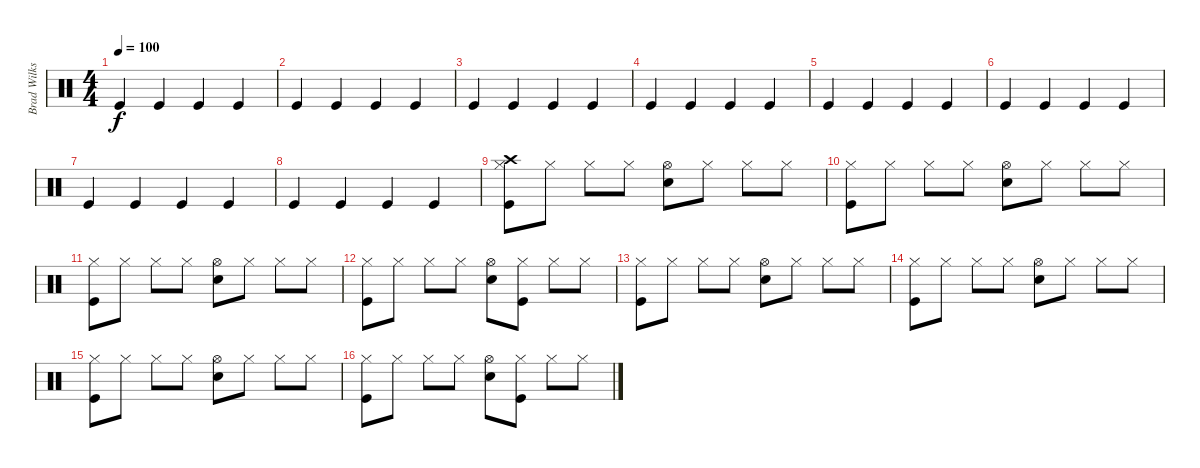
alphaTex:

\track ("Brad Wilks (Percussion)" "Brad Wilks") {instrument percussion}
\staff {score}
\articulation defaults
\ts (4 4)
\tempo 100
\clef neutral
\ks c "Kick (hit)".4{dy f} "Kick (hit)".4 "Kick (hit)".4 "Kick (hit)".4
|
"Kick (hit)".4 "Kick (hit)".4 "Kick (hit)".4 "Kick (hit)".4 |
"Kick (hit)".4 "Kick (hit)".4 "Kick (hit)".4 "Kick (hit)".4 |
"Kick (hit)".4 "Kick (hit)".4 "Kick (hit)".4 "Kick (hit)".4 |
"Kick (hit)".4 "Kick (hit)".4 "Kick (hit)".4 "Kick (hit)".4 |
"Kick (hit)".4 "Kick (hit)".4 "Kick (hit)".4 "Kick (hit)".4 |
"Kick (hit)".4 "Kick (hit)".4 "Kick (hit)".4 "Kick (hit)".4 |
"Kick (hit)".4 "Kick (hit)".4 "Kick (hit)".4 "Kick (hit)".4 |
("Crash high (hit)" "Hi-Hat (closed)" "Kick (hit)").8 "Hi-Hat (closed)".8 "Hi-Hat (closed)".8 "Hi-Hat (closed)".8 ("Hi-Hat (open)" "Electric Snare (hit)").8 "Hi-Hat (closed)".8 "Hi-Hat (closed)".8 "Hi-Hat (closed)".8 |
("Hi-Hat (closed)" "Kick (hit)").8 "Hi-Hat (closed)".8 "Hi-Hat (closed)".8 "Hi-Hat (closed)".8 ("Hi-Hat (open)" "Electric Snare (hit)").8 "Hi-Hat (closed)".8 "Hi-Hat (closed)".8 "Hi-Hat (closed)".8 |
("Hi-Hat (closed)" "Kick (hit)").8 "Hi-Hat (closed)".8 "Hi-Hat (closed)".8 "Hi-Hat (closed)".8 ("Hi-Hat (open)" "Electric Snare (hit)").8 "Hi-Hat (closed)".8 "Hi-Hat (closed)".8 "Hi-Hat (closed)".8 |
("Hi-Hat (closed)" "Kick (hit)").8 "Hi-Hat (closed)".8 "Hi-Hat (closed)".8 "Hi-Hat (closed)".8 ("Hi-Hat (open)" "Electric Snare (hit)").8 ("Hi-Hat (closed)" "Kick (hit)").8 "Hi-Hat (closed)".8 "Hi-Hat (closed)".8 |
("Hi-Hat (closed)" "Kick (hit)").8 "Hi-Hat (closed)".8 "Hi-Hat (closed)".8 "Hi-Hat (closed)".8 ("Hi-Hat (open)" "Electric Snare (hit)").8 "Hi-Hat (closed)".8 "Hi-Hat (closed)".8 "Hi-Hat (closed)".8 |
("Hi-Hat (closed)" "Kick (hit)").8 "Hi-Hat (closed)".8 "Hi-Hat (closed)".8 "Hi-Hat (closed)".8 ("Hi-Hat (open)" "Electric Snare (hit)").8 "Hi-Hat (closed)".8 "Hi-Hat (closed)".8 "Hi-Hat (closed)".8 |
("Hi-Hat (closed)" "Kick (hit)").8 "Hi-Hat (closed)".8 "Hi-Hat (closed)".8 "Hi-Hat (closed)".8 ("Hi-Hat (open)" "Electric Snare (hit)").8 "Hi-Hat (closed)".8 "Hi-Hat (closed)".8 "Hi-Hat (closed)".8 |
("Hi-Hat (closed)" "Kick (hit)").8 "Hi-Hat (closed)".8 "Hi-Hat (closed)".8 "Hi-Hat (closed)".8 ("Hi-Hat (open)" "Electric Snare (hit)").8 ("Hi-Hat (closed)" "Kick (hit)").8 "Hi-Hat (closed)".8 "Hi-Hat (closed)".8
